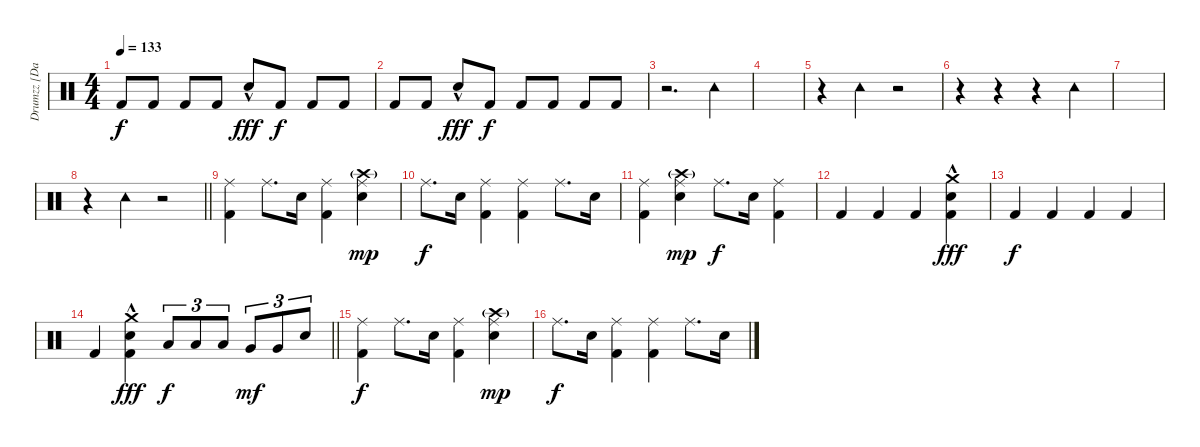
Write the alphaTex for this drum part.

\track ("Drumzz [Dave Grohl]" "Drumzz [Da") {instrument percussion}
\staff {score}
\articulation defaults
\ts (4 4)
\tempo 133
\clef neutral
\ks c "Kick (hit) 2".8{dy f} "Kick (hit) 2".8 "Kick (hit) 2".8 "Kick (hit) 2".8 "Snare (hit) 2"{hac}.8{dy fff} "Kick (hit) 2".8{dy f} "Kick (hit) 2".8 "Kick (hit) 2".8
|
"Kick (hit) 2".8 "Kick (hit) 2".8 "Snare (hit) 2"{hac}.8{dy fff} "Kick (hit) 2".8{dy f} "Kick (hit) 2".8 "Kick (hit) 2".8 "Kick (hit) 2".8 "Kick (hit) 2".8 |
r.2{d} "Tambourine (hit)".4{volume 7 balance 14} |
|
r.4 "Tambourine (hit)".4 r.2 |
r.4 r.4 r.4 "Tambourine (hit)".4 |
|
\barLineRight lightlight
r.4 "Tambourine (hit)".4 r.2 |
("Ride (middle)" "Kick (hit) 2").4{volume 14 balance 8} "Ride (middle)".8{d} "Snare (hit) 2".16 ("Ride (middle)" "Kick (hit) 2").4 ("Ride (middle)" "Snare (hit) 2" "Crash high (hit)"{g}).4{dy mp} |
"Ride (middle)".8{d dy f} "Snare (hit) 2".16 ("Ride (middle)" "Kick (hit) 2").4 ("Ride (middle)" "Kick (hit) 2").4 "Ride (middle)".8{d} "Snare (hit) 2".16 |
("Ride (middle)" "Kick (hit) 2").4 ("Ride (middle)" "Snare (hit) 2" "Crash high (hit)"{g}).4{dy mp} "Ride (middle)".8{d dy f} "Snare (hit) 2".16 ("Ride (middle)" "Kick (hit) 2").4 |
"Kick (hit) 2".4 "Kick (hit) 2".4 "Kick (hit) 2".4 ("Crash medium (hit)" "Snare (hit) 2"{hac} "Kick (hit) 2").4{dy fff} |
"Kick (hit) 2".4{dy f} "Kick (hit) 2".4 "Kick (hit) 2".4 "Kick (hit) 2".4 |
\barLineRight lightlight "Kick (hit) 2".4
("Crash medium (hit)" "Snare (hit) 2"{hac} "Kick (hit) 2").4{dy fff} "Low Tom (hit)".8{tu (3 2) dy f} "Low Tom (hit)".8{tu (3 2)} "Low Tom (hit)".8{tu (3 2)} "Very Low Tom (hit)".8{tu (3 2) dy mf} "Very Low Tom (hit)".8{tu (3 2)} "Snare (hit) 2".8{tu (3 2)} |
("Ride (middle)" "Kick (hit) 2").4{dy f} "Ride (middle)".8{d} "Snare (hit) 2".16 ("Ride (middle)" "Kick (hit) 2").4 ("Ride (middle)" "Snare (hit) 2" "Crash high (hit)"{g}).4{dy mp} |
"Ride (middle)".8{d dy f} "Snare (hit) 2".16 ("Ride (middle)" "Kick (hit) 2").4 ("Ride (middle)" "Kick (hit) 2").4 "Ride (middle)".8{d} "Snare (hit) 2".16
